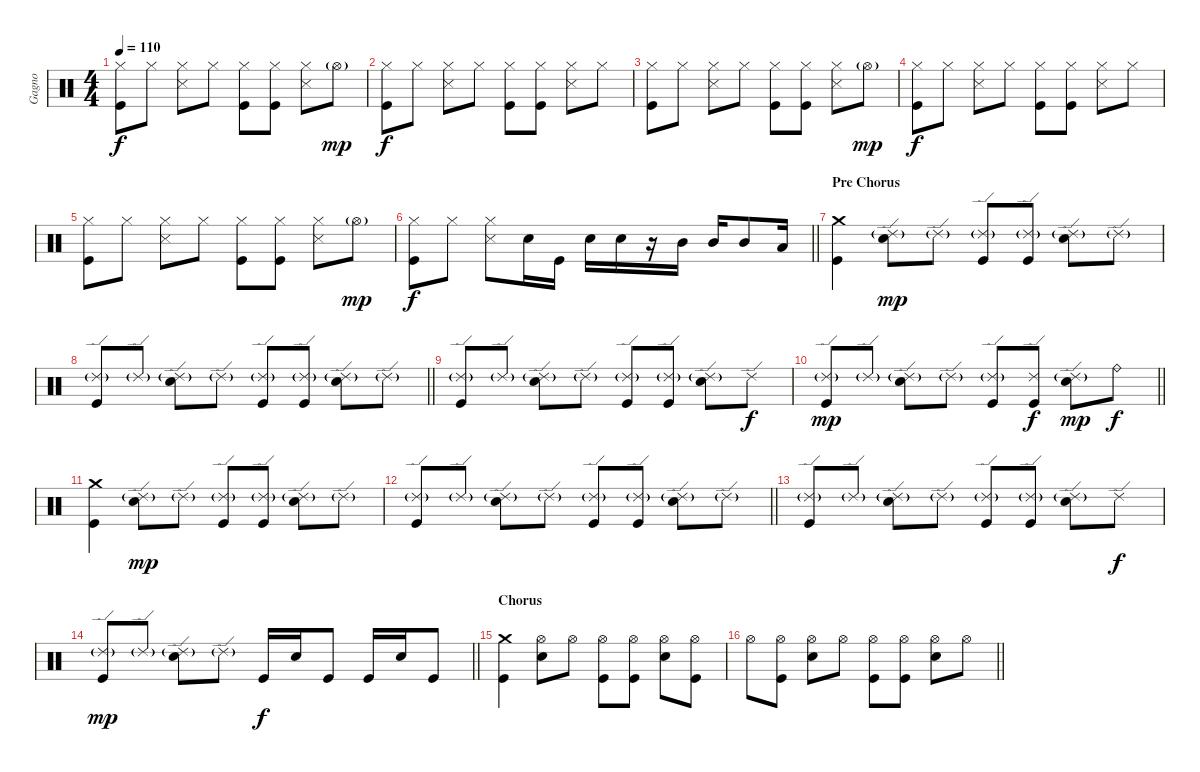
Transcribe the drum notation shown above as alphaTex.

\track ("Gagno" "Gagno") {instrument percussion}
\staff {score}
\articulation defaults
\ts (4 4)
\tempo 110
\clef neutral
\ks c
("Hi-Hat (closed)" "Kick (hit)").8{dy f} "Hi-Hat (closed)".8 ("Hi-Hat (closed)" "Snare (side stick) 3").8 "Hi-Hat (closed)".8 ("Hi-Hat (closed)" "Kick (hit)").8 ("Hi-Hat (closed)" "Kick (hit)").8 ("Hi-Hat (closed)" "Snare (side stick) 3").8 "Hi-Hat (open)"{g}.8{dy mp} |
("Hi-Hat (closed)" "Kick (hit)").8{dy f} "Hi-Hat (closed)".8 ("Hi-Hat (closed)" "Snare (side stick) 3").8 "Hi-Hat (closed)".8 ("Hi-Hat (closed)" "Kick (hit)").8 ("Hi-Hat (closed)" "Kick (hit)").8 ("Hi-Hat (closed)" "Snare (side stick) 3").8 "Hi-Hat (closed)".8 |
("Hi-Hat (closed)" "Kick (hit)").8 "Hi-Hat (closed)".8 ("Hi-Hat (closed)" "Snare (side stick) 3").8 "Hi-Hat (closed)".8 ("Hi-Hat (closed)" "Kick (hit)").8 ("Hi-Hat (closed)" "Kick (hit)").8 ("Hi-Hat (closed)" "Snare (side stick) 3").8 "Hi-Hat (open)"{g}.8{dy mp} |
("Hi-Hat (closed)" "Kick (hit)").8{dy f} "Hi-Hat (closed)".8 ("Hi-Hat (closed)" "Snare (side stick) 3").8 "Hi-Hat (closed)".8 ("Hi-Hat (closed)" "Kick (hit)").8 ("Hi-Hat (closed)" "Kick (hit)").8 ("Hi-Hat (closed)" "Snare (side stick) 3").8 "Hi-Hat (closed)".8 |
("Hi-Hat (closed)" "Kick (hit)").8 "Hi-Hat (closed)".8 ("Hi-Hat (closed)" "Snare (side stick) 3").8 "Hi-Hat (closed)".8 ("Hi-Hat (closed)" "Kick (hit)").8 ("Hi-Hat (closed)" "Kick (hit)").8 ("Hi-Hat (closed)" "Snare (side stick) 3").8 "Hi-Hat (open)"{g}.8{dy mp} |
\barLineRight lightlight
("Hi-Hat (closed)" "Kick (hit)").8{dy f} "Hi-Hat (closed)".8 ("Hi-Hat (closed)" "Snare (side stick) 3").8 "Snare (hit) 2".16 "Kick (hit)".16 "Snare (hit) 2".16 "Snare (hit) 2".16 r.16 "Mid Tom (hit)".16 "Mid Tom (hit)".16 "Mid Tom (hit)".8 "Low Floor Tom (hit)".16 |
\section ("" "Pre Chorus")
("Crash medium (hit)" "Kick (hit)").4 ("Ride (edge) 2"{g} "Snare (hit) 2").8{dy mp} "Ride (edge) 2"{g}.8 ("Ride (edge) 2"{g} "Kick (hit)").8 ("Ride (edge) 2"{g} "Kick (hit)").8 ("Ride (edge) 2"{g} "Snare (hit) 2").8 "Ride (edge) 2"{g}.8 |
\barLineRight lightlight
("Ride (edge) 2"{g} "Kick (hit)").8 "Ride (edge) 2"{g}.8 ("Ride (edge) 2"{g} "Snare (hit) 2").8 "Ride (edge) 2"{g}.8 ("Ride (edge) 2"{g} "Kick (hit)").8 ("Ride (edge) 2"{g} "Kick (hit)").8 ("Ride (edge) 2"{g} "Snare (hit) 2").8 "Ride (edge) 2"{g}.8 |
("Ride (edge) 2"{g} "Kick (hit)").8 "Ride (edge) 2"{g}.8 ("Ride (edge) 2"{g} "Snare (hit) 2").8 "Ride (edge) 2"{g}.8 ("Ride (edge) 2"{g} "Kick (hit)").8 ("Ride (edge) 2"{g} "Kick (hit)").8 ("Ride (edge) 2"{g} "Snare (hit) 2").8 "Ride (edge) 2".8{dy f} |
\barLineRight lightlight
("Ride (edge) 2"{g} "Kick (hit)").8{dy mp} "Ride (edge) 2"{g}.8 ("Ride (edge) 2"{g} "Snare (hit) 2").8 "Ride (edge) 2"{g}.8 ("Ride (edge) 2"{g} "Kick (hit)").8 ("Ride (edge) 2" "Kick (hit)").8{dy f} ("Ride (edge) 2"{g} "Snare (hit) 2").8{dy mp} "Ride (bell)".8{dy f} |
("Crash medium (hit)" "Kick (hit)").4 ("Ride (edge) 2"{g} "Snare (hit) 2").8{dy mp} "Ride (edge) 2"{g}.8 ("Ride (edge) 2"{g} "Kick (hit)").8 ("Ride (edge) 2"{g} "Kick (hit)").8 ("Ride (edge) 2"{g} "Snare (hit) 2").8 "Ride (edge) 2"{g}.8 |
\barLineRight lightlight
("Ride (edge) 2"{g} "Kick (hit)").8 "Ride (edge) 2"{g}.8 ("Ride (edge) 2"{g} "Snare (hit) 2").8 "Ride (edge) 2"{g}.8 ("Ride (edge) 2"{g} "Kick (hit)").8 ("Ride (edge) 2"{g} "Kick (hit)").8 ("Ride (edge) 2"{g} "Snare (hit) 2").8 "Ride (edge) 2"{g}.8 |
("Ride (edge) 2"{g} "Kick (hit)").8 "Ride (edge) 2"{g}.8 ("Ride (edge) 2"{g} "Snare (hit) 2").8 "Ride (edge) 2"{g}.8 ("Ride (edge) 2"{g} "Kick (hit)").8 ("Ride (edge) 2"{g} "Kick (hit)").8 ("Ride (edge) 2"{g} "Snare (hit) 2").8 "Ride (edge) 2".8{dy f} |
\barLineRight lightlight
("Ride (edge) 2"{g} "Kick (hit)").8{dy mp} "Ride (edge) 2"{g}.8 ("Ride (edge) 2"{g} "Snare (hit) 2").8 "Ride (edge) 2"{g}.8 "Kick (hit)".16{dy f} "Snare (hit) 2".16 "Kick (hit)".8 "Kick (hit)".16 "Snare (hit) 2".16 "Kick (hit)".8 |
\section ("" "Chorus")
("Crash medium (hit)" "Kick (hit)").4 ("Hi-Hat (open)" "Snare (hit) 2").8 "Hi-Hat (open)".8 ("Hi-Hat (open)" "Kick (hit)").8 ("Hi-Hat (open)" "Kick (hit)").8 ("Hi-Hat (open)" "Snare (hit) 2").8 ("Hi-Hat (open)" "Kick (hit)").8 |
\barLineRight lightlight "Hi-Hat (open)".8
("Hi-Hat (open)" "Kick (hit)").8 ("Hi-Hat (open)" "Snare (hit) 2").8 "Hi-Hat (open)".8 ("Hi-Hat (open)" "Kick (hit)").8 ("Hi-Hat (open)" "Kick (hit)").8 ("Hi-Hat (open)" "Snare (hit) 2").8 "Hi-Hat (open)".8
